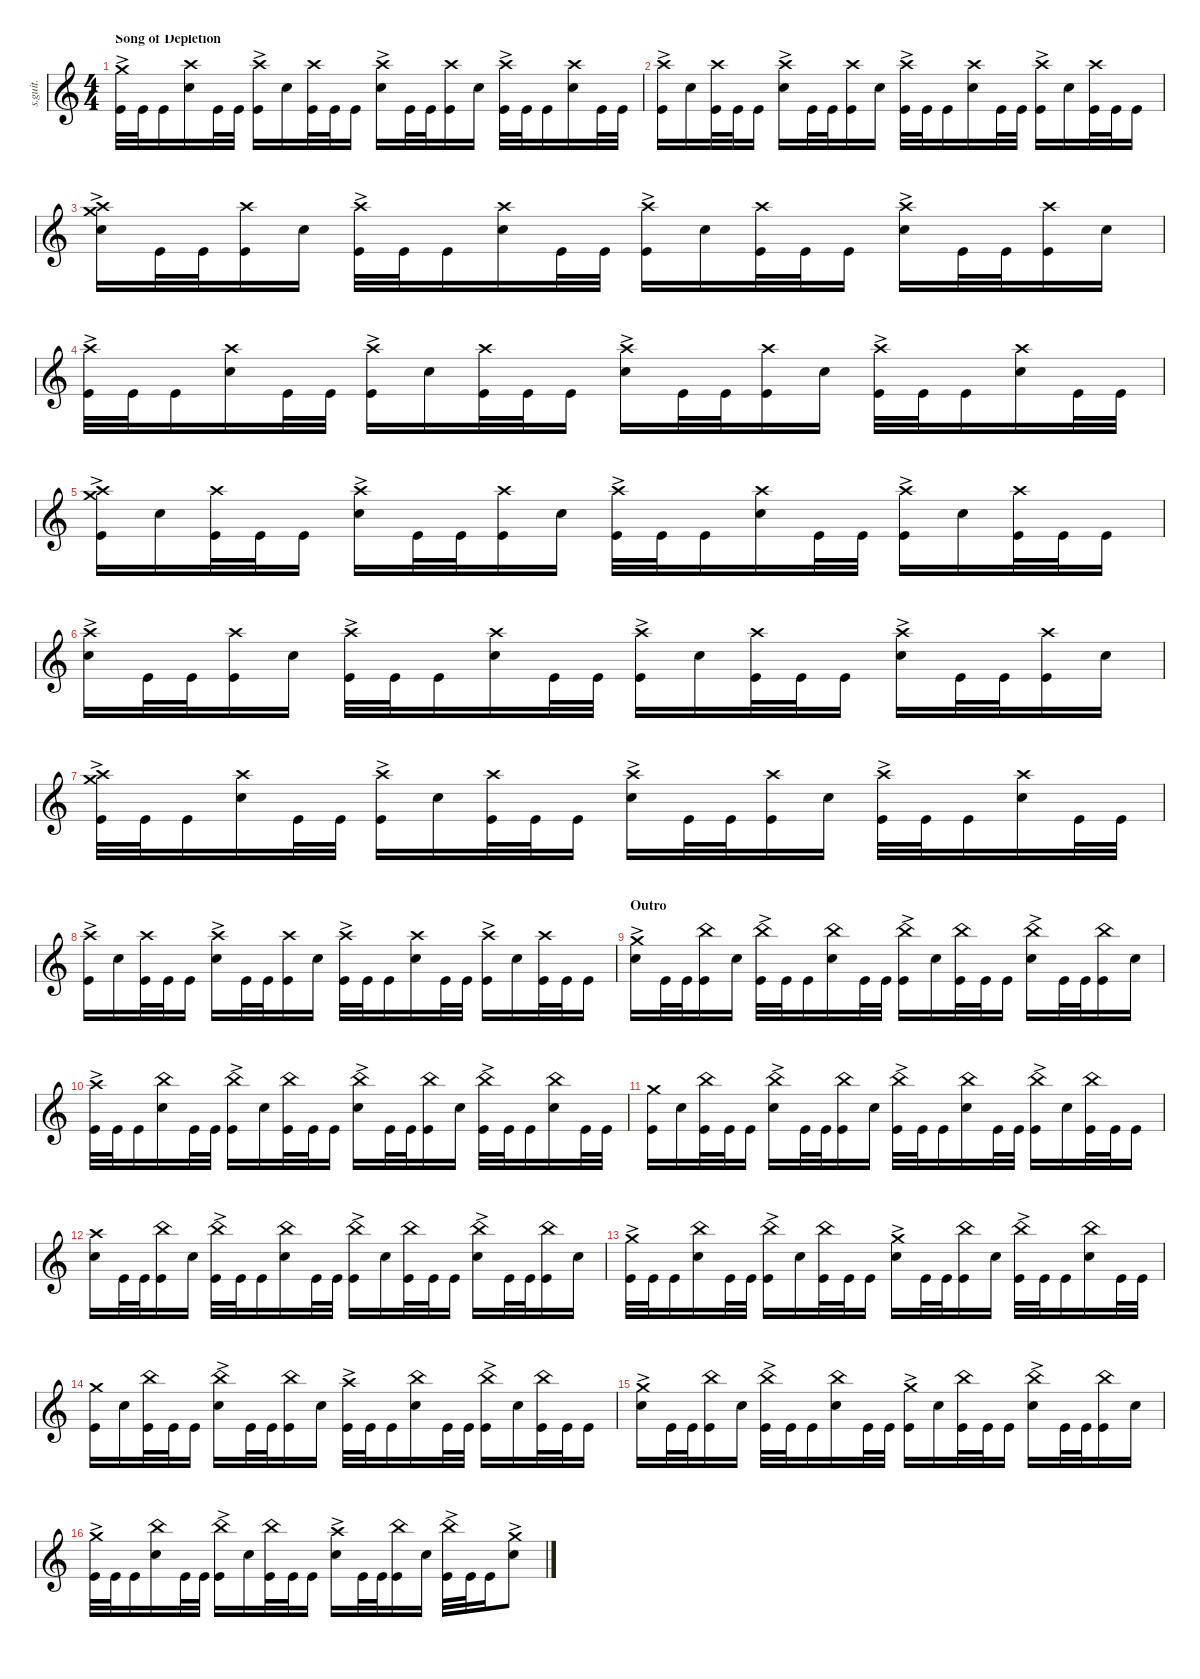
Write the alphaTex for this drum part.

\defaultSystemsLayout 4
\hideDynamics
\bracketExtendMode nobrackets
\track ("Tomas Haake (Drums)" "s.guit.") {instrument percussion}
\staff {score}
\articulation defaults
\ts (4 4)
\section ("" "Song of Depletion")
\tempo (115 hide)
\clef g2
\ks c
("Crash medium (hit)"{ac} "Kick (hit)").32{lyrics (0 "") lyrics (1 "") lyrics (2 "") lyrics (3 "") lyrics (4 "") dy f} "Kick (hit)".32{lyrics (0 "") lyrics (1 "") lyrics (2 "") lyrics (3 "") lyrics (4 "") dy mf} "Kick (hit)".16{lyrics (0 "") lyrics (1 "") lyrics (2 "") lyrics (3 "") lyrics (4 "") dy f} ("Crash high (hit)" "Snare (hit) 2").16{lyrics (0 "") lyrics (1 "") lyrics (2 "") lyrics (3 "") lyrics (4 "") dy mp} "Kick (hit)".32{lyrics (0 "") lyrics (1 "") lyrics (2 "") lyrics (3 "") lyrics (4 "") dy f} "Kick (hit)".32{lyrics (0 "") lyrics (1 "") lyrics (2 "") lyrics (3 "") lyrics (4 "") dy mf} ("Crash high (hit)"{ac} "Kick (hit)").16{lyrics (0 "") lyrics (1 "") lyrics (2 "") lyrics (3 "") lyrics (4 "") dy f} "Snare (hit) 2".16{lyrics (0 "") lyrics (1 "") lyrics (2 "") lyrics (3 "") lyrics (4 "")} ("Crash high (hit)" "Kick (hit)").32{lyrics (0 "") lyrics (1 "") lyrics (2 "") lyrics (3 "") lyrics (4 "") dy mp} "Kick (hit)".32{lyrics (0 "") lyrics (1 "") lyrics (2 "") lyrics (3 "") lyrics (4 "") dy mf} "Kick (hit)".16{lyrics (0 "") lyrics (1 "") lyrics (2 "") lyrics (3 "") lyrics (4 "") dy f} ("Crash high (hit)"{ac} "Snare (hit) 2").16{lyrics (0 "") lyrics (1 "") lyrics (2 "") lyrics (3 "") lyrics (4 "")} "Kick (hit)".32{lyrics (0 "") lyrics (1 "") lyrics (2 "") lyrics (3 "") lyrics (4 "")} "Kick (hit)".32{lyrics (0 "") lyrics (1 "") lyrics (2 "") lyrics (3 "") lyrics (4 "") dy mf} ("Crash high (hit)" "Kick (hit)").16{lyrics (0 "") lyrics (1 "") lyrics (2 "") lyrics (3 "") lyrics (4 "") dy mp} "Snare (hit) 2".16{lyrics (0 "") lyrics (1 "") lyrics (2 "") lyrics (3 "") lyrics (4 "") dy f} ("Crash high (hit)"{ac} "Kick (hit)").32{lyrics (0 "") lyrics (1 "") lyrics (2 "") lyrics (3 "") lyrics (4 "")} "Kick (hit)".32{lyrics (0 "") lyrics (1 "") lyrics (2 "") lyrics (3 "") lyrics (4 "") dy mf} "Kick (hit)".16{lyrics (0 "") lyrics (1 "") lyrics (2 "") lyrics (3 "") lyrics (4 "") dy f} ("Crash high (hit)" "Snare (hit) 2").16{lyrics (0 "") lyrics (1 "") lyrics (2 "") lyrics (3 "") lyrics (4 "") dy mp} "Kick (hit)".32{lyrics (0 "") lyrics (1 "") lyrics (2 "") lyrics (3 "") lyrics (4 "") dy f} "Kick (hit)".32{lyrics (0 "") lyrics (1 "") lyrics (2 "") lyrics (3 "") lyrics (4 "") dy mf} |
("Crash high (hit)"{ac} "Kick (hit)").16{lyrics (0 "") lyrics (1 "") lyrics (2 "") lyrics (3 "") lyrics (4 "") dy f} "Snare (hit) 2".16{lyrics (0 "") lyrics (1 "") lyrics (2 "") lyrics (3 "") lyrics (4 "")} ("Crash high (hit)" "Kick (hit)").32{lyrics (0 "") lyrics (1 "") lyrics (2 "") lyrics (3 "") lyrics (4 "") dy mp} "Kick (hit)".32{lyrics (0 "") lyrics (1 "") lyrics (2 "") lyrics (3 "") lyrics (4 "") dy mf} "Kick (hit)".16{lyrics (0 "") lyrics (1 "") lyrics (2 "") lyrics (3 "") lyrics (4 "") dy f} ("Crash high (hit)"{ac} "Snare (hit) 2").16{lyrics (0 "") lyrics (1 "") lyrics (2 "") lyrics (3 "") lyrics (4 "")} "Kick (hit)".32{lyrics (0 "") lyrics (1 "") lyrics (2 "") lyrics (3 "") lyrics (4 "")} "Kick (hit)".32{lyrics (0 "") lyrics (1 "") lyrics (2 "") lyrics (3 "") lyrics (4 "") dy mf} ("Crash high (hit)" "Kick (hit)").16{lyrics (0 "") lyrics (1 "") lyrics (2 "") lyrics (3 "") lyrics (4 "") dy mp} "Snare (hit) 2".16{lyrics (0 "") lyrics (1 "") lyrics (2 "") lyrics (3 "") lyrics (4 "") dy f} ("Crash high (hit)"{ac} "Kick (hit)").32{lyrics (0 "") lyrics (1 "") lyrics (2 "") lyrics (3 "") lyrics (4 "")} "Kick (hit)".32{lyrics (0 "") lyrics (1 "") lyrics (2 "") lyrics (3 "") lyrics (4 "") dy mf} "Kick (hit)".16{lyrics (0 "") lyrics (1 "") lyrics (2 "") lyrics (3 "") lyrics (4 "") dy f} ("Crash high (hit)" "Snare (hit) 2").16{lyrics (0 "") lyrics (1 "") lyrics (2 "") lyrics (3 "") lyrics (4 "") dy mp} "Kick (hit)".32{lyrics (0 "") lyrics (1 "") lyrics (2 "") lyrics (3 "") lyrics (4 "") dy f} "Kick (hit)".32{lyrics (0 "") lyrics (1 "") lyrics (2 "") lyrics (3 "") lyrics (4 "") dy mf} ("Crash high (hit)"{ac} "Kick (hit)").16{lyrics (0 "") lyrics (1 "") lyrics (2 "") lyrics (3 "") lyrics (4 "") dy f} "Snare (hit) 2".16{lyrics (0 "") lyrics (1 "") lyrics (2 "") lyrics (3 "") lyrics (4 "")} ("Crash high (hit)" "Kick (hit)").32{lyrics (0 "") lyrics (1 "") lyrics (2 "") lyrics (3 "") lyrics (4 "") dy mp} "Kick (hit)".32{lyrics (0 "") lyrics (1 "") lyrics (2 "") lyrics (3 "") lyrics (4 "") dy mf} "Kick (hit)".16{lyrics (0 "") lyrics (1 "") lyrics (2 "") lyrics (3 "") lyrics (4 "") dy f} |
("Crash high (hit)"{ac} "Crash medium (hit)" "Snare (hit) 2").16{lyrics (0 "") lyrics (1 "") lyrics (2 "") lyrics (3 "") lyrics (4 "")} "Kick (hit)".32{lyrics (0 "") lyrics (1 "") lyrics (2 "") lyrics (3 "") lyrics (4 "")} "Kick (hit)".32{lyrics (0 "") lyrics (1 "") lyrics (2 "") lyrics (3 "") lyrics (4 "") dy mf} ("Crash high (hit)" "Kick (hit)").16{lyrics (0 "") lyrics (1 "") lyrics (2 "") lyrics (3 "") lyrics (4 "") dy mp} "Snare (hit) 2".16{lyrics (0 "") lyrics (1 "") lyrics (2 "") lyrics (3 "") lyrics (4 "") dy f} ("Crash high (hit)"{ac} "Kick (hit)").32{lyrics (0 "") lyrics (1 "") lyrics (2 "") lyrics (3 "") lyrics (4 "")} "Kick (hit)".32{lyrics (0 "") lyrics (1 "") lyrics (2 "") lyrics (3 "") lyrics (4 "") dy mf} "Kick (hit)".16{lyrics (0 "") lyrics (1 "") lyrics (2 "") lyrics (3 "") lyrics (4 "") dy f} ("Crash high (hit)" "Snare (hit) 2").16{lyrics (0 "") lyrics (1 "") lyrics (2 "") lyrics (3 "") lyrics (4 "") dy mp} "Kick (hit)".32{lyrics (0 "") lyrics (1 "") lyrics (2 "") lyrics (3 "") lyrics (4 "") dy f} "Kick (hit)".32{lyrics (0 "") lyrics (1 "") lyrics (2 "") lyrics (3 "") lyrics (4 "") dy mf} ("Crash high (hit)"{ac} "Kick (hit)").16{lyrics (0 "") lyrics (1 "") lyrics (2 "") lyrics (3 "") lyrics (4 "") dy f} "Snare (hit) 2".16{lyrics (0 "") lyrics (1 "") lyrics (2 "") lyrics (3 "") lyrics (4 "")} ("Crash high (hit)" "Kick (hit)").32{lyrics (0 "") lyrics (1 "") lyrics (2 "") lyrics (3 "") lyrics (4 "") dy mp} "Kick (hit)".32{lyrics (0 "") lyrics (1 "") lyrics (2 "") lyrics (3 "") lyrics (4 "") dy mf} "Kick (hit)".16{lyrics (0 "") lyrics (1 "") lyrics (2 "") lyrics (3 "") lyrics (4 "") dy f} ("Crash high (hit)"{ac} "Snare (hit) 2").16{lyrics (0 "") lyrics (1 "") lyrics (2 "") lyrics (3 "") lyrics (4 "")} "Kick (hit)".32{lyrics (0 "") lyrics (1 "") lyrics (2 "") lyrics (3 "") lyrics (4 "")} "Kick (hit)".32{lyrics (0 "") lyrics (1 "") lyrics (2 "") lyrics (3 "") lyrics (4 "") dy mf} ("Crash high (hit)" "Kick (hit)").16{lyrics (0 "") lyrics (1 "") lyrics (2 "") lyrics (3 "") lyrics (4 "") dy mp} "Snare (hit) 2".16{lyrics (0 "") lyrics (1 "") lyrics (2 "") lyrics (3 "") lyrics (4 "") dy f} |
("Crash high (hit)"{ac} "Kick (hit)").32{lyrics (0 "") lyrics (1 "") lyrics (2 "") lyrics (3 "") lyrics (4 "")} "Kick (hit)".32{lyrics (0 "") lyrics (1 "") lyrics (2 "") lyrics (3 "") lyrics (4 "") dy mf} "Kick (hit)".16{lyrics (0 "") lyrics (1 "") lyrics (2 "") lyrics (3 "") lyrics (4 "") dy f} ("Crash high (hit)" "Snare (hit) 2").16{lyrics (0 "") lyrics (1 "") lyrics (2 "") lyrics (3 "") lyrics (4 "") dy mp} "Kick (hit)".32{lyrics (0 "") lyrics (1 "") lyrics (2 "") lyrics (3 "") lyrics (4 "") dy f} "Kick (hit)".32{lyrics (0 "") lyrics (1 "") lyrics (2 "") lyrics (3 "") lyrics (4 "") dy mf} ("Crash high (hit)"{ac} "Kick (hit)").16{lyrics (0 "") lyrics (1 "") lyrics (2 "") lyrics (3 "") lyrics (4 "") dy f} "Snare (hit) 2".16{lyrics (0 "") lyrics (1 "") lyrics (2 "") lyrics (3 "") lyrics (4 "")} ("Crash high (hit)" "Kick (hit)").32{lyrics (0 "") lyrics (1 "") lyrics (2 "") lyrics (3 "") lyrics (4 "") dy mp} "Kick (hit)".32{lyrics (0 "") lyrics (1 "") lyrics (2 "") lyrics (3 "") lyrics (4 "") dy mf} "Kick (hit)".16{lyrics (0 "") lyrics (1 "") lyrics (2 "") lyrics (3 "") lyrics (4 "") dy f} ("Crash high (hit)"{ac} "Snare (hit) 2").16{lyrics (0 "") lyrics (1 "") lyrics (2 "") lyrics (3 "") lyrics (4 "")} "Kick (hit)".32{lyrics (0 "") lyrics (1 "") lyrics (2 "") lyrics (3 "") lyrics (4 "")} "Kick (hit)".32{lyrics (0 "") lyrics (1 "") lyrics (2 "") lyrics (3 "") lyrics (4 "") dy mf} ("Crash high (hit)" "Kick (hit)").16{lyrics (0 "") lyrics (1 "") lyrics (2 "") lyrics (3 "") lyrics (4 "") dy mp} "Snare (hit) 2".16{lyrics (0 "") lyrics (1 "") lyrics (2 "") lyrics (3 "") lyrics (4 "") dy f} ("Crash high (hit)"{ac} "Kick (hit)").32{lyrics (0 "") lyrics (1 "") lyrics (2 "") lyrics (3 "") lyrics (4 "")} "Kick (hit)".32{lyrics (0 "") lyrics (1 "") lyrics (2 "") lyrics (3 "") lyrics (4 "") dy mf} "Kick (hit)".16{lyrics (0 "") lyrics (1 "") lyrics (2 "") lyrics (3 "") lyrics (4 "") dy f} ("Crash high (hit)" "Snare (hit) 2").16{lyrics (0 "") lyrics (1 "") lyrics (2 "") lyrics (3 "") lyrics (4 "") dy mp} "Kick (hit)".32{lyrics (0 "") lyrics (1 "") lyrics (2 "") lyrics (3 "") lyrics (4 "") dy f} "Kick (hit)".32{lyrics (0 "") lyrics (1 "") lyrics (2 "") lyrics (3 "") lyrics (4 "") dy mf} |
("Crash high (hit)"{ac} "Crash medium (hit)" "Kick (hit)").16{lyrics (0 "") lyrics (1 "") lyrics (2 "") lyrics (3 "") lyrics (4 "") dy f} "Snare (hit) 2".16{lyrics (0 "") lyrics (1 "") lyrics (2 "") lyrics (3 "") lyrics (4 "")} ("Crash high (hit)" "Kick (hit)").32{lyrics (0 "") lyrics (1 "") lyrics (2 "") lyrics (3 "") lyrics (4 "") dy mp} "Kick (hit)".32{lyrics (0 "") lyrics (1 "") lyrics (2 "") lyrics (3 "") lyrics (4 "") dy mf} "Kick (hit)".16{lyrics (0 "") lyrics (1 "") lyrics (2 "") lyrics (3 "") lyrics (4 "") dy f} ("Crash high (hit)"{ac} "Snare (hit) 2").16{lyrics (0 "") lyrics (1 "") lyrics (2 "") lyrics (3 "") lyrics (4 "")} "Kick (hit)".32{lyrics (0 "") lyrics (1 "") lyrics (2 "") lyrics (3 "") lyrics (4 "")} "Kick (hit)".32{lyrics (0 "") lyrics (1 "") lyrics (2 "") lyrics (3 "") lyrics (4 "") dy mf} ("Crash high (hit)" "Kick (hit)").16{lyrics (0 "") lyrics (1 "") lyrics (2 "") lyrics (3 "") lyrics (4 "") dy mp} "Snare (hit) 2".16{lyrics (0 "") lyrics (1 "") lyrics (2 "") lyrics (3 "") lyrics (4 "") dy f} ("Crash high (hit)"{ac} "Kick (hit)").32{lyrics (0 "") lyrics (1 "") lyrics (2 "") lyrics (3 "") lyrics (4 "")} "Kick (hit)".32{lyrics (0 "") lyrics (1 "") lyrics (2 "") lyrics (3 "") lyrics (4 "") dy mf} "Kick (hit)".16{lyrics (0 "") lyrics (1 "") lyrics (2 "") lyrics (3 "") lyrics (4 "") dy f} ("Crash high (hit)" "Snare (hit) 2").16{lyrics (0 "") lyrics (1 "") lyrics (2 "") lyrics (3 "") lyrics (4 "") dy mp} "Kick (hit)".32{lyrics (0 "") lyrics (1 "") lyrics (2 "") lyrics (3 "") lyrics (4 "") dy f} "Kick (hit)".32{lyrics (0 "") lyrics (1 "") lyrics (2 "") lyrics (3 "") lyrics (4 "") dy mf} ("Crash high (hit)"{ac} "Kick (hit)").16{lyrics (0 "") lyrics (1 "") lyrics (2 "") lyrics (3 "") lyrics (4 "") dy f} "Snare (hit) 2".16{lyrics (0 "") lyrics (1 "") lyrics (2 "") lyrics (3 "") lyrics (4 "")} ("Crash high (hit)" "Kick (hit)").32{lyrics (0 "") lyrics (1 "") lyrics (2 "") lyrics (3 "") lyrics (4 "") dy mp} "Kick (hit)".32{lyrics (0 "") lyrics (1 "") lyrics (2 "") lyrics (3 "") lyrics (4 "") dy mf} "Kick (hit)".16{lyrics (0 "") lyrics (1 "") lyrics (2 "") lyrics (3 "") lyrics (4 "") dy f} |
("Crash high (hit)"{ac} "Snare (hit) 2").16{lyrics (0 "") lyrics (1 "") lyrics (2 "") lyrics (3 "") lyrics (4 "")} "Kick (hit)".32{lyrics (0 "") lyrics (1 "") lyrics (2 "") lyrics (3 "") lyrics (4 "")} "Kick (hit)".32{lyrics (0 "") lyrics (1 "") lyrics (2 "") lyrics (3 "") lyrics (4 "") dy mf} ("Crash high (hit)" "Kick (hit)").16{lyrics (0 "") lyrics (1 "") lyrics (2 "") lyrics (3 "") lyrics (4 "") dy mp} "Snare (hit) 2".16{lyrics (0 "") lyrics (1 "") lyrics (2 "") lyrics (3 "") lyrics (4 "") dy f} ("Crash high (hit)"{ac} "Kick (hit)").32{lyrics (0 "") lyrics (1 "") lyrics (2 "") lyrics (3 "") lyrics (4 "")} "Kick (hit)".32{lyrics (0 "") lyrics (1 "") lyrics (2 "") lyrics (3 "") lyrics (4 "") dy mf} "Kick (hit)".16{lyrics (0 "") lyrics (1 "") lyrics (2 "") lyrics (3 "") lyrics (4 "") dy f} ("Crash high (hit)" "Snare (hit) 2").16{lyrics (0 "") lyrics (1 "") lyrics (2 "") lyrics (3 "") lyrics (4 "") dy mp} "Kick (hit)".32{lyrics (0 "") lyrics (1 "") lyrics (2 "") lyrics (3 "") lyrics (4 "") dy f} "Kick (hit)".32{lyrics (0 "") lyrics (1 "") lyrics (2 "") lyrics (3 "") lyrics (4 "") dy mf} ("Crash high (hit)"{ac} "Kick (hit)").16{lyrics (0 "") lyrics (1 "") lyrics (2 "") lyrics (3 "") lyrics (4 "") dy f} "Snare (hit) 2".16{lyrics (0 "") lyrics (1 "") lyrics (2 "") lyrics (3 "") lyrics (4 "")} ("Crash high (hit)" "Kick (hit)").32{lyrics (0 "") lyrics (1 "") lyrics (2 "") lyrics (3 "") lyrics (4 "") dy mp} "Kick (hit)".32{lyrics (0 "") lyrics (1 "") lyrics (2 "") lyrics (3 "") lyrics (4 "") dy mf} "Kick (hit)".16{lyrics (0 "") lyrics (1 "") lyrics (2 "") lyrics (3 "") lyrics (4 "") dy f} ("Crash high (hit)"{ac} "Snare (hit) 2").16{lyrics (0 "") lyrics (1 "") lyrics (2 "") lyrics (3 "") lyrics (4 "")} "Kick (hit)".32{lyrics (0 "") lyrics (1 "") lyrics (2 "") lyrics (3 "") lyrics (4 "")} "Kick (hit)".32{lyrics (0 "") lyrics (1 "") lyrics (2 "") lyrics (3 "") lyrics (4 "") dy mf} ("Crash high (hit)" "Kick (hit)").16{lyrics (0 "") lyrics (1 "") lyrics (2 "") lyrics (3 "") lyrics (4 "") dy mp} "Snare (hit) 2".16{lyrics (0 "") lyrics (1 "") lyrics (2 "") lyrics (3 "") lyrics (4 "") dy f} |
("Crash high (hit)"{ac} "Crash medium (hit)" "Kick (hit)").32{lyrics (0 "") lyrics (1 "") lyrics (2 "") lyrics (3 "") lyrics (4 "") dy mf} "Kick (hit)".32{lyrics (0 "") lyrics (1 "") lyrics (2 "") lyrics (3 "") lyrics (4 "")} "Kick (hit)".16{lyrics (0 "") lyrics (1 "") lyrics (2 "") lyrics (3 "") lyrics (4 "") dy f} ("Crash high (hit)" "Snare (hit) 2").16{lyrics (0 "") lyrics (1 "") lyrics (2 "") lyrics (3 "") lyrics (4 "") dy mp} "Kick (hit)".32{lyrics (0 "") lyrics (1 "") lyrics (2 "") lyrics (3 "") lyrics (4 "") dy f} "Kick (hit)".32{lyrics (0 "") lyrics (1 "") lyrics (2 "") lyrics (3 "") lyrics (4 "") dy mf} ("Crash high (hit)"{ac} "Kick (hit)").16{lyrics (0 "") lyrics (1 "") lyrics (2 "") lyrics (3 "") lyrics (4 "") dy f} "Snare (hit) 2".16{lyrics (0 "") lyrics (1 "") lyrics (2 "") lyrics (3 "") lyrics (4 "")} ("Crash high (hit)" "Kick (hit)").32{lyrics (0 "") lyrics (1 "") lyrics (2 "") lyrics (3 "") lyrics (4 "") dy mp} "Kick (hit)".32{lyrics (0 "") lyrics (1 "") lyrics (2 "") lyrics (3 "") lyrics (4 "") dy mf} "Kick (hit)".16{lyrics (0 "") lyrics (1 "") lyrics (2 "") lyrics (3 "") lyrics (4 "") dy f} ("Crash high (hit)"{ac} "Snare (hit) 2").16{lyrics (0 "") lyrics (1 "") lyrics (2 "") lyrics (3 "") lyrics (4 "")} "Kick (hit)".32{lyrics (0 "") lyrics (1 "") lyrics (2 "") lyrics (3 "") lyrics (4 "")} "Kick (hit)".32{lyrics (0 "") lyrics (1 "") lyrics (2 "") lyrics (3 "") lyrics (4 "") dy mf} ("Crash high (hit)" "Kick (hit)").16{lyrics (0 "") lyrics (1 "") lyrics (2 "") lyrics (3 "") lyrics (4 "") dy mp} "Snare (hit) 2".16{lyrics (0 "") lyrics (1 "") lyrics (2 "") lyrics (3 "") lyrics (4 "") dy f} ("Crash high (hit)"{ac} "Kick (hit)").32{lyrics (0 "") lyrics (1 "") lyrics (2 "") lyrics (3 "") lyrics (4 "")} "Kick (hit)".32{lyrics (0 "") lyrics (1 "") lyrics (2 "") lyrics (3 "") lyrics (4 "") dy mf} "Kick (hit)".16{lyrics (0 "") lyrics (1 "") lyrics (2 "") lyrics (3 "") lyrics (4 "") dy f} ("Crash high (hit)" "Snare (hit) 2").16{lyrics (0 "") lyrics (1 "") lyrics (2 "") lyrics (3 "") lyrics (4 "") dy mp} "Kick (hit)".32{lyrics (0 "") lyrics (1 "") lyrics (2 "") lyrics (3 "") lyrics (4 "") dy f} "Kick (hit)".32{lyrics (0 "") lyrics (1 "") lyrics (2 "") lyrics (3 "") lyrics (4 "") dy mf} |
("Crash high (hit)"{ac} "Kick (hit)").16{lyrics (0 "") lyrics (1 "") lyrics (2 "") lyrics (3 "") lyrics (4 "") dy f} "Snare (hit) 2".16{lyrics (0 "") lyrics (1 "") lyrics (2 "") lyrics (3 "") lyrics (4 "")} ("Crash high (hit)" "Kick (hit)").32{lyrics (0 "") lyrics (1 "") lyrics (2 "") lyrics (3 "") lyrics (4 "") dy mp} "Kick (hit)".32{lyrics (0 "") lyrics (1 "") lyrics (2 "") lyrics (3 "") lyrics (4 "") dy mf} "Kick (hit)".16{lyrics (0 "") lyrics (1 "") lyrics (2 "") lyrics (3 "") lyrics (4 "") dy f} ("Crash high (hit)"{ac} "Snare (hit) 2").16{lyrics (0 "") lyrics (1 "") lyrics (2 "") lyrics (3 "") lyrics (4 "")} "Kick (hit)".32{lyrics (0 "") lyrics (1 "") lyrics (2 "") lyrics (3 "") lyrics (4 "")} "Kick (hit)".32{lyrics (0 "") lyrics (1 "") lyrics (2 "") lyrics (3 "") lyrics (4 "") dy mf} ("Crash high (hit)" "Kick (hit)").16{lyrics (0 "") lyrics (1 "") lyrics (2 "") lyrics (3 "") lyrics (4 "") dy mp} "Snare (hit) 2".16{lyrics (0 "") lyrics (1 "") lyrics (2 "") lyrics (3 "") lyrics (4 "") dy f} ("Crash high (hit)"{ac} "Kick (hit)").32{lyrics (0 "") lyrics (1 "") lyrics (2 "") lyrics (3 "") lyrics (4 "")} "Kick (hit)".32{lyrics (0 "") lyrics (1 "") lyrics (2 "") lyrics (3 "") lyrics (4 "") dy mf} "Kick (hit)".16{lyrics (0 "") lyrics (1 "") lyrics (2 "") lyrics (3 "") lyrics (4 "") dy f} ("Crash high (hit)" "Snare (hit) 2").16{lyrics (0 "") lyrics (1 "") lyrics (2 "") lyrics (3 "") lyrics (4 "") dy mp} "Kick (hit)".32{lyrics (0 "") lyrics (1 "") lyrics (2 "") lyrics (3 "") lyrics (4 "") dy f} "Kick (hit)".32{lyrics (0 "") lyrics (1 "") lyrics (2 "") lyrics (3 "") lyrics (4 "") dy mf} ("Crash high (hit)"{ac} "Kick (hit)").16{lyrics (0 "") lyrics (1 "") lyrics (2 "") lyrics (3 "") lyrics (4 "") dy f} "Snare (hit) 2".16{lyrics (0 "") lyrics (1 "") lyrics (2 "") lyrics (3 "") lyrics (4 "")} ("Crash high (hit)" "Kick (hit)").32{lyrics (0 "") lyrics (1 "") lyrics (2 "") lyrics (3 "") lyrics (4 "") dy mp} "Kick (hit)".32{lyrics (0 "") lyrics (1 "") lyrics (2 "") lyrics (3 "") lyrics (4 "") dy mf} "Kick (hit)".16{lyrics (0 "") lyrics (1 "") lyrics (2 "") lyrics (3 "") lyrics (4 "") dy f} |
\section ("" "Outro")
("Crash medium (hit)"{ac} "Snare (hit) 2").16{lyrics (0 "") lyrics (1 "") lyrics (2 "") lyrics (3 "") lyrics (4 "")} "Kick (hit)".32{lyrics (0 "") lyrics (1 "") lyrics (2 "") lyrics (3 "") lyrics (4 "")} "Kick (hit)".32{lyrics (0 "") lyrics (1 "") lyrics (2 "") lyrics (3 "") lyrics (4 "") dy mf} ("China (hit)" "Kick (hit)").16{lyrics (0 "") lyrics (1 "") lyrics (2 "") lyrics (3 "") lyrics (4 "") dy mp} "Snare (hit) 2".16{lyrics (0 "") lyrics (1 "") lyrics (2 "") lyrics (3 "") lyrics (4 "") dy f} ("China (hit)"{ac} "Kick (hit)").32{lyrics (0 "") lyrics (1 "") lyrics (2 "") lyrics (3 "") lyrics (4 "")} "Kick (hit)".32{lyrics (0 "") lyrics (1 "") lyrics (2 "") lyrics (3 "") lyrics (4 "") dy mf} "Kick (hit)".16{lyrics (0 "") lyrics (1 "") lyrics (2 "") lyrics (3 "") lyrics (4 "") dy f} ("China (hit)" "Snare (hit) 2").16{lyrics (0 "") lyrics (1 "") lyrics (2 "") lyrics (3 "") lyrics (4 "") dy mp} "Kick (hit)".32{lyrics (0 "") lyrics (1 "") lyrics (2 "") lyrics (3 "") lyrics (4 "") dy f} "Kick (hit)".32{lyrics (0 "") lyrics (1 "") lyrics (2 "") lyrics (3 "") lyrics (4 "") dy mf} ("China (hit)"{ac} "Kick (hit)").16{lyrics (0 "") lyrics (1 "") lyrics (2 "") lyrics (3 "") lyrics (4 "") dy f} "Snare (hit) 2".16{lyrics (0 "") lyrics (1 "") lyrics (2 "") lyrics (3 "") lyrics (4 "")} ("China (hit)" "Kick (hit)").32{lyrics (0 "") lyrics (1 "") lyrics (2 "") lyrics (3 "") lyrics (4 "") dy mp} "Kick (hit)".32{lyrics (0 "") lyrics (1 "") lyrics (2 "") lyrics (3 "") lyrics (4 "") dy mf} "Kick (hit)".16{lyrics (0 "") lyrics (1 "") lyrics (2 "") lyrics (3 "") lyrics (4 "") dy f} ("China (hit)"{ac} "Snare (hit) 2").16{lyrics (0 "") lyrics (1 "") lyrics (2 "") lyrics (3 "") lyrics (4 "")} "Kick (hit)".32{lyrics (0 "") lyrics (1 "") lyrics (2 "") lyrics (3 "") lyrics (4 "")} "Kick (hit)".32{lyrics (0 "") lyrics (1 "") lyrics (2 "") lyrics (3 "") lyrics (4 "") dy mf} ("China (hit)" "Kick (hit)").16{lyrics (0 "") lyrics (1 "") lyrics (2 "") lyrics (3 "") lyrics (4 "") dy mp} "Snare (hit) 2".16{lyrics (0 "") lyrics (1 "") lyrics (2 "") lyrics (3 "") lyrics (4 "") dy f} |
("Crash high (hit)"{ac} "Kick (hit)").32{lyrics (0 "") lyrics (1 "") lyrics (2 "") lyrics (3 "") lyrics (4 "")} "Kick (hit)".32{lyrics (0 "") lyrics (1 "") lyrics (2 "") lyrics (3 "") lyrics (4 "") dy mf} "Kick (hit)".16{lyrics (0 "") lyrics (1 "") lyrics (2 "") lyrics (3 "") lyrics (4 "") dy f} ("China (hit)" "Snare (hit) 2").16{lyrics (0 "") lyrics (1 "") lyrics (2 "") lyrics (3 "") lyrics (4 "") dy mp} "Kick (hit)".32{lyrics (0 "") lyrics (1 "") lyrics (2 "") lyrics (3 "") lyrics (4 "") dy f} "Kick (hit)".32{lyrics (0 "") lyrics (1 "") lyrics (2 "") lyrics (3 "") lyrics (4 "") dy mf} ("China (hit)"{ac} "Kick (hit)").16{lyrics (0 "") lyrics (1 "") lyrics (2 "") lyrics (3 "") lyrics (4 "") dy f} "Snare (hit) 2".16{lyrics (0 "") lyrics (1 "") lyrics (2 "") lyrics (3 "") lyrics (4 "")} ("China (hit)" "Kick (hit)").32{lyrics (0 "") lyrics (1 "") lyrics (2 "") lyrics (3 "") lyrics (4 "") dy mp} "Kick (hit)".32{lyrics (0 "") lyrics (1 "") lyrics (2 "") lyrics (3 "") lyrics (4 "") dy mf} "Kick (hit)".16{lyrics (0 "") lyrics (1 "") lyrics (2 "") lyrics (3 "") lyrics (4 "") dy f} ("China (hit)"{ac} "Snare (hit) 2").16{lyrics (0 "") lyrics (1 "") lyrics (2 "") lyrics (3 "") lyrics (4 "")} "Kick (hit)".32{lyrics (0 "") lyrics (1 "") lyrics (2 "") lyrics (3 "") lyrics (4 "")} "Kick (hit)".32{lyrics (0 "") lyrics (1 "") lyrics (2 "") lyrics (3 "") lyrics (4 "") dy mf} ("China (hit)" "Kick (hit)").16{lyrics (0 "") lyrics (1 "") lyrics (2 "") lyrics (3 "") lyrics (4 "") dy mp} "Snare (hit) 2".16{lyrics (0 "") lyrics (1 "") lyrics (2 "") lyrics (3 "") lyrics (4 "") dy f} ("China (hit)"{ac} "Kick (hit)").32{lyrics (0 "") lyrics (1 "") lyrics (2 "") lyrics (3 "") lyrics (4 "")} "Kick (hit)".32{lyrics (0 "") lyrics (1 "") lyrics (2 "") lyrics (3 "") lyrics (4 "") dy mf} "Kick (hit)".16{lyrics (0 "") lyrics (1 "") lyrics (2 "") lyrics (3 "") lyrics (4 "") dy f} ("China (hit)" "Snare (hit) 2").16{lyrics (0 "") lyrics (1 "") lyrics (2 "") lyrics (3 "") lyrics (4 "") dy mp} "Kick (hit)".32{lyrics (0 "") lyrics (1 "") lyrics (2 "") lyrics (3 "") lyrics (4 "") dy f} "Kick (hit)".32{lyrics (0 "") lyrics (1 "") lyrics (2 "") lyrics (3 "") lyrics (4 "") dy mf} |
("Crash medium (hit)" "Kick (hit)").16{lyrics (0 "") lyrics (1 "") lyrics (2 "") lyrics (3 "") lyrics (4 "") dy f} "Snare (hit) 2".16{lyrics (0 "") lyrics (1 "") lyrics (2 "") lyrics (3 "") lyrics (4 "")} ("China (hit)" "Kick (hit)").32{lyrics (0 "") lyrics (1 "") lyrics (2 "") lyrics (3 "") lyrics (4 "") dy mp} "Kick (hit)".32{lyrics (0 "") lyrics (1 "") lyrics (2 "") lyrics (3 "") lyrics (4 "") dy mf} "Kick (hit)".16{lyrics (0 "") lyrics (1 "") lyrics (2 "") lyrics (3 "") lyrics (4 "") dy f} ("China (hit)"{ac} "Snare (hit) 2").16{lyrics (0 "") lyrics (1 "") lyrics (2 "") lyrics (3 "") lyrics (4 "")} "Kick (hit)".32{lyrics (0 "") lyrics (1 "") lyrics (2 "") lyrics (3 "") lyrics (4 "")} "Kick (hit)".32{lyrics (0 "") lyrics (1 "") lyrics (2 "") lyrics (3 "") lyrics (4 "") dy mf} ("China (hit)" "Kick (hit)").16{lyrics (0 "") lyrics (1 "") lyrics (2 "") lyrics (3 "") lyrics (4 "") dy mp} "Snare (hit) 2".16{lyrics (0 "") lyrics (1 "") lyrics (2 "") lyrics (3 "") lyrics (4 "") dy f} ("China (hit)"{ac} "Kick (hit)").32{lyrics (0 "") lyrics (1 "") lyrics (2 "") lyrics (3 "") lyrics (4 "")} "Kick (hit)".32{lyrics (0 "") lyrics (1 "") lyrics (2 "") lyrics (3 "") lyrics (4 "") dy mf} "Kick (hit)".16{lyrics (0 "") lyrics (1 "") lyrics (2 "") lyrics (3 "") lyrics (4 "") dy f} ("China (hit)" "Snare (hit) 2").16{lyrics (0 "") lyrics (1 "") lyrics (2 "") lyrics (3 "") lyrics (4 "") dy mp} "Kick (hit)".32{lyrics (0 "") lyrics (1 "") lyrics (2 "") lyrics (3 "") lyrics (4 "") dy f} "Kick (hit)".32{lyrics (0 "") lyrics (1 "") lyrics (2 "") lyrics (3 "") lyrics (4 "") dy mf} ("China (hit)"{ac} "Kick (hit)").16{lyrics (0 "") lyrics (1 "") lyrics (2 "") lyrics (3 "") lyrics (4 "") dy f} "Snare (hit) 2".16{lyrics (0 "") lyrics (1 "") lyrics (2 "") lyrics (3 "") lyrics (4 "")} ("China (hit)" "Kick (hit)").32{lyrics (0 "") lyrics (1 "") lyrics (2 "") lyrics (3 "") lyrics (4 "") dy mp} "Kick (hit)".32{lyrics (0 "") lyrics (1 "") lyrics (2 "") lyrics (3 "") lyrics (4 "") dy mf} "Kick (hit)".16{lyrics (0 "") lyrics (1 "") lyrics (2 "") lyrics (3 "") lyrics (4 "") dy f} |
("Crash high (hit)" "Snare (hit) 2").16{lyrics (0 "") lyrics (1 "") lyrics (2 "") lyrics (3 "") lyrics (4 "")} "Kick (hit)".32{lyrics (0 "") lyrics (1 "") lyrics (2 "") lyrics (3 "") lyrics (4 "")} "Kick (hit)".32{lyrics (0 "") lyrics (1 "") lyrics (2 "") lyrics (3 "") lyrics (4 "") dy mf} ("China (hit)" "Kick (hit)").16{lyrics (0 "") lyrics (1 "") lyrics (2 "") lyrics (3 "") lyrics (4 "") dy mp} "Snare (hit) 2".16{lyrics (0 "") lyrics (1 "") lyrics (2 "") lyrics (3 "") lyrics (4 "") dy f} ("China (hit)"{ac} "Kick (hit)").32{lyrics (0 "") lyrics (1 "") lyrics (2 "") lyrics (3 "") lyrics (4 "")} "Kick (hit)".32{lyrics (0 "") lyrics (1 "") lyrics (2 "") lyrics (3 "") lyrics (4 "") dy mf} "Kick (hit)".16{lyrics (0 "") lyrics (1 "") lyrics (2 "") lyrics (3 "") lyrics (4 "") dy f} ("China (hit)" "Snare (hit) 2").16{lyrics (0 "") lyrics (1 "") lyrics (2 "") lyrics (3 "") lyrics (4 "") dy mp} "Kick (hit)".32{lyrics (0 "") lyrics (1 "") lyrics (2 "") lyrics (3 "") lyrics (4 "") dy f} "Kick (hit)".32{lyrics (0 "") lyrics (1 "") lyrics (2 "") lyrics (3 "") lyrics (4 "") dy mf} ("China (hit)"{ac} "Kick (hit)").16{lyrics (0 "") lyrics (1 "") lyrics (2 "") lyrics (3 "") lyrics (4 "") dy f} "Snare (hit) 2".16{lyrics (0 "") lyrics (1 "") lyrics (2 "") lyrics (3 "") lyrics (4 "")} ("China (hit)" "Kick (hit)").32{lyrics (0 "") lyrics (1 "") lyrics (2 "") lyrics (3 "") lyrics (4 "") dy mp} "Kick (hit)".32{lyrics (0 "") lyrics (1 "") lyrics (2 "") lyrics (3 "") lyrics (4 "") dy mf} "Kick (hit)".16{lyrics (0 "") lyrics (1 "") lyrics (2 "") lyrics (3 "") lyrics (4 "") dy f} ("China (hit)"{ac} "Snare (hit) 2").16{lyrics (0 "") lyrics (1 "") lyrics (2 "") lyrics (3 "") lyrics (4 "")} "Kick (hit)".32{lyrics (0 "") lyrics (1 "") lyrics (2 "") lyrics (3 "") lyrics (4 "")} "Kick (hit)".32{lyrics (0 "") lyrics (1 "") lyrics (2 "") lyrics (3 "") lyrics (4 "") dy mf} ("China (hit)" "Kick (hit)").16{lyrics (0 "") lyrics (1 "") lyrics (2 "") lyrics (3 "") lyrics (4 "") dy mp} "Snare (hit) 2".16{lyrics (0 "") lyrics (1 "") lyrics (2 "") lyrics (3 "") lyrics (4 "") dy f} |
("Crash medium (hit)"{ac} "Kick (hit)").32{lyrics (0 "") lyrics (1 "") lyrics (2 "") lyrics (3 "") lyrics (4 "")} "Kick (hit)".32{lyrics (0 "") lyrics (1 "") lyrics (2 "") lyrics (3 "") lyrics (4 "") dy mf} "Kick (hit)".16{lyrics (0 "") lyrics (1 "") lyrics (2 "") lyrics (3 "") lyrics (4 "") dy f} ("China (hit)" "Snare (hit) 2").16{lyrics (0 "") lyrics (1 "") lyrics (2 "") lyrics (3 "") lyrics (4 "") dy mp} "Kick (hit)".32{lyrics (0 "") lyrics (1 "") lyrics (2 "") lyrics (3 "") lyrics (4 "") dy f} "Kick (hit)".32{lyrics (0 "") lyrics (1 "") lyrics (2 "") lyrics (3 "") lyrics (4 "") dy mf} ("China (hit)"{ac} "Kick (hit)").16{lyrics (0 "") lyrics (1 "") lyrics (2 "") lyrics (3 "") lyrics (4 "") dy f} "Snare (hit) 2".16{lyrics (0 "") lyrics (1 "") lyrics (2 "") lyrics (3 "") lyrics (4 "")} ("China (hit)" "Kick (hit)").32{lyrics (0 "") lyrics (1 "") lyrics (2 "") lyrics (3 "") lyrics (4 "") dy mp} "Kick (hit)".32{lyrics (0 "") lyrics (1 "") lyrics (2 "") lyrics (3 "") lyrics (4 "") dy mf} "Kick (hit)".16{lyrics (0 "") lyrics (1 "") lyrics (2 "") lyrics (3 "") lyrics (4 "") dy f} ("Crash medium (hit)"{ac} "Snare (hit) 2").16{lyrics (0 "") lyrics (1 "") lyrics (2 "") lyrics (3 "") lyrics (4 "")} "Kick (hit)".32{lyrics (0 "") lyrics (1 "") lyrics (2 "") lyrics (3 "") lyrics (4 "")} "Kick (hit)".32{lyrics (0 "") lyrics (1 "") lyrics (2 "") lyrics (3 "") lyrics (4 "") dy mf} ("China (hit)" "Kick (hit)").16{lyrics (0 "") lyrics (1 "") lyrics (2 "") lyrics (3 "") lyrics (4 "") dy mp} "Snare (hit) 2".16{lyrics (0 "") lyrics (1 "") lyrics (2 "") lyrics (3 "") lyrics (4 "") dy f} ("China (hit)"{ac} "Kick (hit)").32{lyrics (0 "") lyrics (1 "") lyrics (2 "") lyrics (3 "") lyrics (4 "")} "Kick (hit)".32{lyrics (0 "") lyrics (1 "") lyrics (2 "") lyrics (3 "") lyrics (4 "") dy mf} "Kick (hit)".16{lyrics (0 "") lyrics (1 "") lyrics (2 "") lyrics (3 "") lyrics (4 "") dy f} ("China (hit)" "Snare (hit) 2").16{lyrics (0 "") lyrics (1 "") lyrics (2 "") lyrics (3 "") lyrics (4 "") dy mp} "Kick (hit)".32{lyrics (0 "") lyrics (1 "") lyrics (2 "") lyrics (3 "") lyrics (4 "") dy f} "Kick (hit)".32{lyrics (0 "") lyrics (1 "") lyrics (2 "") lyrics (3 "") lyrics (4 "") dy mf} |
("Crash medium (hit)" "Kick (hit)").16{lyrics (0 "") lyrics (1 "") lyrics (2 "") lyrics (3 "") lyrics (4 "") dy f} "Snare (hit) 2".16{lyrics (0 "") lyrics (1 "") lyrics (2 "") lyrics (3 "") lyrics (4 "")} ("China (hit)" "Kick (hit)").32{lyrics (0 "") lyrics (1 "") lyrics (2 "") lyrics (3 "") lyrics (4 "") dy mp} "Kick (hit)".32{lyrics (0 "") lyrics (1 "") lyrics (2 "") lyrics (3 "") lyrics (4 "") dy mf} "Kick (hit)".16{lyrics (0 "") lyrics (1 "") lyrics (2 "") lyrics (3 "") lyrics (4 "") dy f} ("China (hit)"{ac} "Snare (hit) 2").16{lyrics (0 "") lyrics (1 "") lyrics (2 "") lyrics (3 "") lyrics (4 "")} "Kick (hit)".32{lyrics (0 "") lyrics (1 "") lyrics (2 "") lyrics (3 "") lyrics (4 "")} "Kick (hit)".32{lyrics (0 "") lyrics (1 "") lyrics (2 "") lyrics (3 "") lyrics (4 "") dy mf} ("China (hit)" "Kick (hit)").16{lyrics (0 "") lyrics (1 "") lyrics (2 "") lyrics (3 "") lyrics (4 "") dy mp} "Snare (hit) 2".16{lyrics (0 "") lyrics (1 "") lyrics (2 "") lyrics (3 "") lyrics (4 "") dy f} ("Crash high (hit)"{ac} "Kick (hit)").32{lyrics (0 "") lyrics (1 "") lyrics (2 "") lyrics (3 "") lyrics (4 "")} "Kick (hit)".32{lyrics (0 "") lyrics (1 "") lyrics (2 "") lyrics (3 "") lyrics (4 "") dy mf} "Kick (hit)".16{lyrics (0 "") lyrics (1 "") lyrics (2 "") lyrics (3 "") lyrics (4 "") dy f} ("China (hit)" "Snare (hit) 2").16{lyrics (0 "") lyrics (1 "") lyrics (2 "") lyrics (3 "") lyrics (4 "") dy mp} "Kick (hit)".32{lyrics (0 "") lyrics (1 "") lyrics (2 "") lyrics (3 "") lyrics (4 "") dy f} "Kick (hit)".32{lyrics (0 "") lyrics (1 "") lyrics (2 "") lyrics (3 "") lyrics (4 "") dy mf} ("China (hit)"{ac} "Kick (hit)").16{lyrics (0 "") lyrics (1 "") lyrics (2 "") lyrics (3 "") lyrics (4 "") dy f} "Snare (hit) 2".16{lyrics (0 "") lyrics (1 "") lyrics (2 "") lyrics (3 "") lyrics (4 "")} ("China (hit)" "Kick (hit)").32{lyrics (0 "") lyrics (1 "") lyrics (2 "") lyrics (3 "") lyrics (4 "") dy mp} "Kick (hit)".32{lyrics (0 "") lyrics (1 "") lyrics (2 "") lyrics (3 "") lyrics (4 "") dy mf} "Kick (hit)".16{lyrics (0 "") lyrics (1 "") lyrics (2 "") lyrics (3 "") lyrics (4 "") dy f} |
("Crash medium (hit)"{ac} "Snare (hit) 2").16{lyrics (0 "") lyrics (1 "") lyrics (2 "") lyrics (3 "") lyrics (4 "")} "Kick (hit)".32{lyrics (0 "") lyrics (1 "") lyrics (2 "") lyrics (3 "") lyrics (4 "")} "Kick (hit)".32{lyrics (0 "") lyrics (1 "") lyrics (2 "") lyrics (3 "") lyrics (4 "") dy mf} ("China (hit)" "Kick (hit)").16{lyrics (0 "") lyrics (1 "") lyrics (2 "") lyrics (3 "") lyrics (4 "") dy mp} "Snare (hit) 2".16{lyrics (0 "") lyrics (1 "") lyrics (2 "") lyrics (3 "") lyrics (4 "") dy f} ("China (hit)"{ac} "Kick (hit)").32{lyrics (0 "") lyrics (1 "") lyrics (2 "") lyrics (3 "") lyrics (4 "")} "Kick (hit)".32{lyrics (0 "") lyrics (1 "") lyrics (2 "") lyrics (3 "") lyrics (4 "") dy mf} "Kick (hit)".16{lyrics (0 "") lyrics (1 "") lyrics (2 "") lyrics (3 "") lyrics (4 "") dy f} ("China (hit)" "Snare (hit) 2").16{lyrics (0 "") lyrics (1 "") lyrics (2 "") lyrics (3 "") lyrics (4 "") dy mp} "Kick (hit)".32{lyrics (0 "") lyrics (1 "") lyrics (2 "") lyrics (3 "") lyrics (4 "") dy f} "Kick (hit)".32{lyrics (0 "") lyrics (1 "") lyrics (2 "") lyrics (3 "") lyrics (4 "") dy mf} ("Crash medium (hit)"{ac} "Kick (hit)").16{lyrics (0 "") lyrics (1 "") lyrics (2 "") lyrics (3 "") lyrics (4 "") dy f} "Snare (hit) 2".16{lyrics (0 "") lyrics (1 "") lyrics (2 "") lyrics (3 "") lyrics (4 "")} ("China (hit)" "Kick (hit)").32{lyrics (0 "") lyrics (1 "") lyrics (2 "") lyrics (3 "") lyrics (4 "") dy mp} "Kick (hit)".32{lyrics (0 "") lyrics (1 "") lyrics (2 "") lyrics (3 "") lyrics (4 "") dy mf} "Kick (hit)".16{lyrics (0 "") lyrics (1 "") lyrics (2 "") lyrics (3 "") lyrics (4 "") dy f} ("China (hit)"{ac} "Snare (hit) 2").16{lyrics (0 "") lyrics (1 "") lyrics (2 "") lyrics (3 "") lyrics (4 "")} "Kick (hit)".32{lyrics (0 "") lyrics (1 "") lyrics (2 "") lyrics (3 "") lyrics (4 "")} "Kick (hit)".32{lyrics (0 "") lyrics (1 "") lyrics (2 "") lyrics (3 "") lyrics (4 "") dy mf} ("China (hit)" "Kick (hit)").16{lyrics (0 "") lyrics (1 "") lyrics (2 "") lyrics (3 "") lyrics (4 "") dy mp} "Snare (hit) 2".16{lyrics (0 "") lyrics (1 "") lyrics (2 "") lyrics (3 "") lyrics (4 "") dy f} |
("Crash medium (hit)"{ac} "Kick (hit)").32{lyrics (0 "") lyrics (1 "") lyrics (2 "") lyrics (3 "") lyrics (4 "")} "Kick (hit)".32{lyrics (0 "") lyrics (1 "") lyrics (2 "") lyrics (3 "") lyrics (4 "") dy mf} "Kick (hit)".16{lyrics (0 "") lyrics (1 "") lyrics (2 "") lyrics (3 "") lyrics (4 "") dy f} ("China (hit)" "Snare (hit) 2").16{lyrics (0 "") lyrics (1 "") lyrics (2 "") lyrics (3 "") lyrics (4 "") dy mp} "Kick (hit)".32{lyrics (0 "") lyrics (1 "") lyrics (2 "") lyrics (3 "") lyrics (4 "") dy f} "Kick (hit)".32{lyrics (0 "") lyrics (1 "") lyrics (2 "") lyrics (3 "") lyrics (4 "") dy mf} ("China (hit)"{ac} "Kick (hit)").16{lyrics (0 "") lyrics (1 "") lyrics (2 "") lyrics (3 "") lyrics (4 "") dy f} "Snare (hit) 2".16{lyrics (0 "") lyrics (1 "") lyrics (2 "") lyrics (3 "") lyrics (4 "")} ("China (hit)" "Kick (hit)").32{lyrics (0 "") lyrics (1 "") lyrics (2 "") lyrics (3 "") lyrics (4 "") dy mp} "Kick (hit)".32{lyrics (0 "") lyrics (1 "") lyrics (2 "") lyrics (3 "") lyrics (4 "") dy mf} "Kick (hit)".16{lyrics (0 "") lyrics (1 "") lyrics (2 "") lyrics (3 "") lyrics (4 "") dy f} ("Crash high (hit)"{ac} "Snare (hit) 2").16{lyrics (0 "") lyrics (1 "") lyrics (2 "") lyrics (3 "") lyrics (4 "")} "Kick (hit)".32{lyrics (0 "") lyrics (1 "") lyrics (2 "") lyrics (3 "") lyrics (4 "")} "Kick (hit)".32{lyrics (0 "") lyrics (1 "") lyrics (2 "") lyrics (3 "") lyrics (4 "") dy mf} ("China (hit)" "Kick (hit)").16{lyrics (0 "") lyrics (1 "") lyrics (2 "") lyrics (3 "") lyrics (4 "") dy mp} "Snare (hit) 2".16{lyrics (0 "") lyrics (1 "") lyrics (2 "") lyrics (3 "") lyrics (4 "") dy f} ("China (hit)"{ac} "Kick (hit)").32{lyrics (0 "") lyrics (1 "") lyrics (2 "") lyrics (3 "") lyrics (4 "")} "Kick (hit)".32{lyrics (0 "") lyrics (1 "") lyrics (2 "") lyrics (3 "") lyrics (4 "") dy mf} "Kick (hit)".16{lyrics (0 "") lyrics (1 "") lyrics (2 "") lyrics (3 "") lyrics (4 "") dy f} ("Crash medium (hit)"{ac} "Snare (hit) 2"{ac}).8{lyrics (0 "") lyrics (1 "") lyrics (2 "") lyrics (3 "") lyrics (4 "") dy pp}
